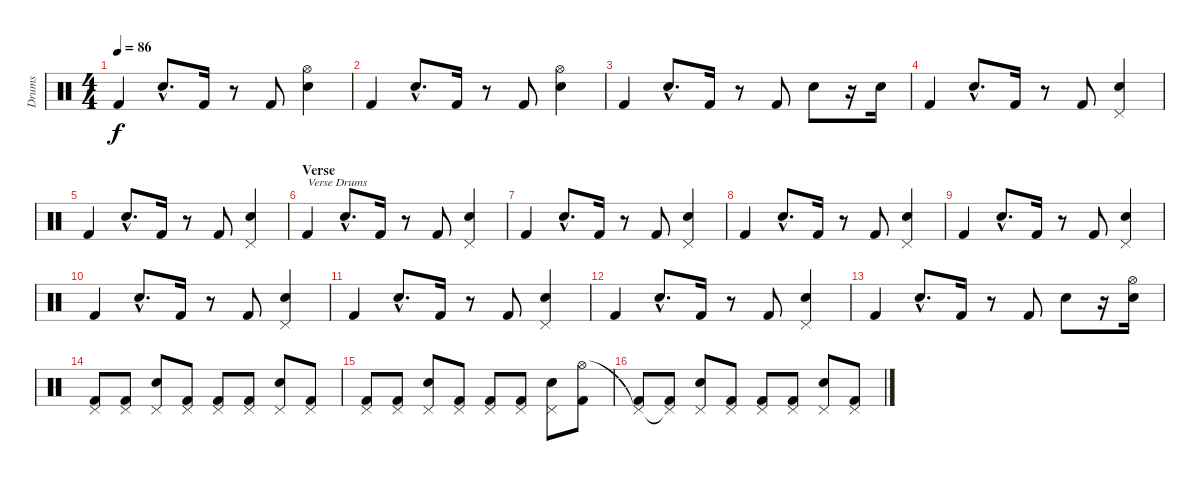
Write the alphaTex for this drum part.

\track ("Drums" "Drums") {instrument percussion}
\staff {score}
\articulation defaults
\ts (4 4)
\tempo 86
\clef neutral
\ks c "Kick (hit) 2".4{dy f} "Snare (hit) 2"{hac}.8{d} "Kick (hit) 2".16
r.8 "Kick (hit) 2".8 ("Hi-Hat (open)" "Snare (hit) 2").4 |
"Kick (hit) 2".4 "Snare (hit) 2"{hac}.8{d} "Kick (hit) 2".16 r.8 "Kick (hit) 2".8 ("Hi-Hat (open)" "Snare (hit) 2").4 |
"Kick (hit) 2".4 "Snare (hit) 2"{hac}.8{d} "Kick (hit) 2".16 r.8 "Kick (hit) 2".8 "Snare (hit) 2".8 r.16 "Snare (hit) 2".16 |
"Kick (hit) 2".4 "Snare (hit) 2"{hac}.8{d} "Kick (hit) 2".16 r.8 "Kick (hit) 2".8 ("Pedal Hi-Hat (hit)" "Snare (hit) 2").4 |
"Kick (hit) 2".4 "Snare (hit) 2"{hac}.8{d} "Kick (hit) 2".16 r.8 "Kick (hit) 2".8 ("Pedal Hi-Hat (hit)" "Snare (hit) 2").4 |
\section ("" "Verse")
"Kick (hit) 2".4{txt "Verse Drums"} "Snare (hit) 2"{hac}.8{d} "Kick (hit) 2".16 r.8 "Kick (hit) 2".8 ("Pedal Hi-Hat (hit)" "Snare (hit) 2").4 |
"Kick (hit) 2".4 "Snare (hit) 2"{hac}.8{d} "Kick (hit) 2".16 r.8 "Kick (hit) 2".8 ("Pedal Hi-Hat (hit)" "Snare (hit) 2").4 |
"Kick (hit) 2".4 "Snare (hit) 2"{hac}.8{d} "Kick (hit) 2".16 r.8 "Kick (hit) 2".8 ("Pedal Hi-Hat (hit)" "Snare (hit) 2").4 |
"Kick (hit) 2".4 "Snare (hit) 2"{hac}.8{d} "Kick (hit) 2".16 r.8 "Kick (hit) 2".8 ("Pedal Hi-Hat (hit)" "Snare (hit) 2").4 |
"Kick (hit) 2".4 "Snare (hit) 2"{hac}.8{d} "Kick (hit) 2".16 r.8 "Kick (hit) 2".8 ("Pedal Hi-Hat (hit)" "Snare (hit) 2").4 |
"Kick (hit) 2".4 "Snare (hit) 2"{hac}.8{d} "Kick (hit) 2".16 r.8 "Kick (hit) 2".8 ("Pedal Hi-Hat (hit)" "Snare (hit) 2").4 |
"Kick (hit) 2".4 "Snare (hit) 2"{hac}.8{d} "Kick (hit) 2".16 r.8 "Kick (hit) 2".8 ("Pedal Hi-Hat (hit)" "Snare (hit) 2").4 |
"Kick (hit) 2".4 "Snare (hit) 2"{hac}.8{d} "Kick (hit) 2".16 r.8 "Kick (hit) 2".8 "Snare (hit) 2".8 r.16 ("Hi-Hat (open)" "Snare (hit) 2").16 |
("Pedal Hi-Hat (hit)" "Kick (hit) 2").8 ("Pedal Hi-Hat (hit)" "Kick (hit) 2").8 ("Pedal Hi-Hat (hit)" "Snare (hit) 2").8 ("Pedal Hi-Hat (hit)" "Kick (hit) 2").8 ("Pedal Hi-Hat (hit)" "Kick (hit) 2").8 ("Pedal Hi-Hat (hit)" "Kick (hit) 2").8 ("Pedal Hi-Hat (hit)" "Snare (hit) 2").8 ("Pedal Hi-Hat (hit)" "Kick (hit) 2").8 |
("Pedal Hi-Hat (hit)" "Kick (hit) 2").8 ("Pedal Hi-Hat (hit)" "Kick (hit) 2").8 ("Pedal Hi-Hat (hit)" "Snare (hit) 2").8 ("Pedal Hi-Hat (hit)" "Kick (hit) 2").8 ("Pedal Hi-Hat (hit)" "Kick (hit) 2").8 ("Pedal Hi-Hat (hit)" "Kick (hit) 2").8 ("Pedal Hi-Hat (hit)" "Snare (hit) 2").8 ("Hi-Hat (open)" "Kick (hit) 2").8 |
("Pedal Hi-Hat (hit)"{t} "Kick (hit) 2").8 ("Pedal Hi-Hat (hit)"{t} "Kick (hit) 2").8 ("Pedal Hi-Hat (hit)" "Snare (hit) 2").8 ("Pedal Hi-Hat (hit)" "Kick (hit) 2").8 ("Pedal Hi-Hat (hit)" "Kick (hit) 2").8 ("Pedal Hi-Hat (hit)" "Kick (hit) 2").8 ("Pedal Hi-Hat (hit)" "Snare (hit) 2").8 ("Pedal Hi-Hat (hit)" "Kick (hit) 2").8
